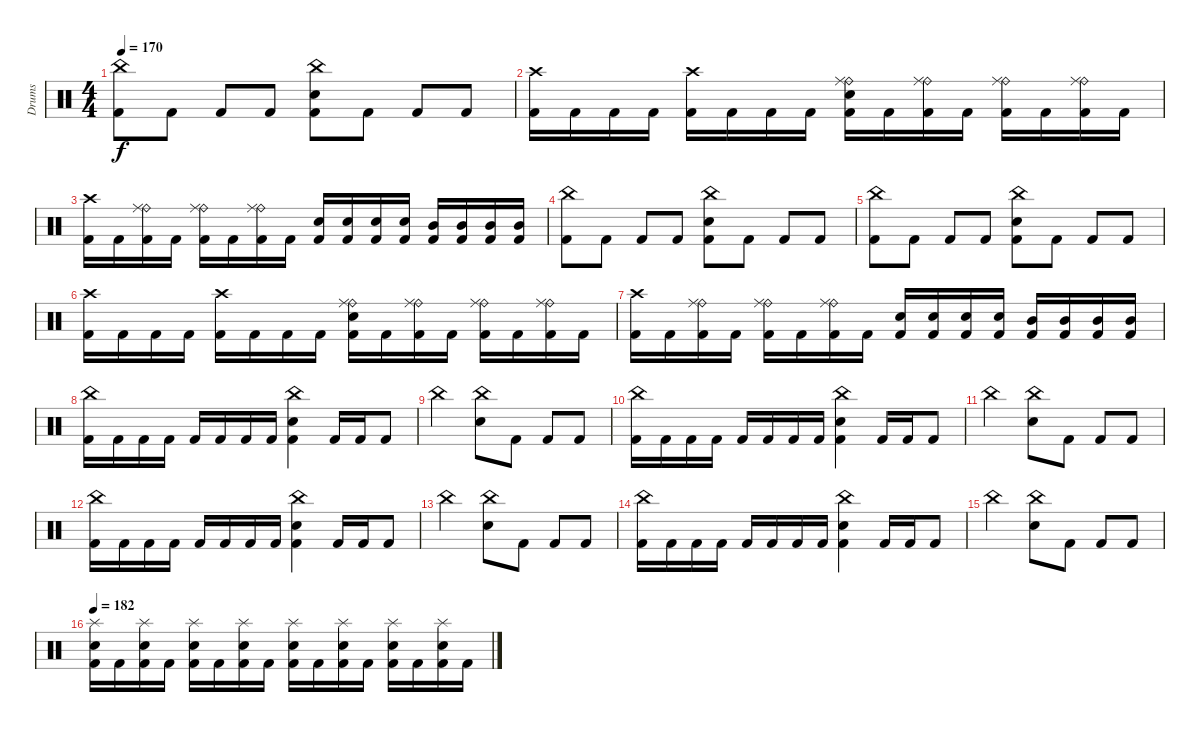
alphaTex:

\track ("Drums" "Drums") {instrument percussion}
\staff {score}
\articulation defaults
\ts (4 4)
\tempo 170
\clef neutral
\ks c
("China (hit)" "Kick (hit) 2").8{dy f} "Kick (hit) 2".8 "Kick (hit) 2".8 "Kick (hit) 2".8 ("China (hit)" "Electric Snare (hit)" "Kick (hit) 2").8 "Kick (hit) 2".8 "Kick (hit) 2".8 "Kick (hit) 2".8 |
("Crash high (hit)" "Kick (hit) 2").16 "Kick (hit) 2".16 "Kick (hit) 2".16 "Kick (hit) 2".16 ("Crash high (hit)" "Kick (hit) 2").16 "Kick (hit) 2".16 "Kick (hit) 2".16 "Kick (hit) 2".16 ("Ride (bell)" "Ride (middle)" "Electric Snare (hit)" "Kick (hit) 2").16 "Kick (hit) 2".16 ("Ride (bell)" "Ride (middle)" "Kick (hit) 2").16 "Kick (hit) 2".16 ("Ride (bell)" "Ride (middle)" "Kick (hit) 2").16 "Kick (hit) 2".16 ("Ride (bell)" "Ride (middle)" "Kick (hit) 2").16 "Kick (hit) 2".16 |
("Crash high (hit)" "Kick (hit) 2").16 "Kick (hit) 2".16 ("Ride (bell)" "Ride (middle)" "Kick (hit) 2").16 "Kick (hit) 2".16 ("Ride (bell)" "Ride (middle)" "Kick (hit) 2").16 "Kick (hit) 2".16 ("Ride (bell)" "Ride (middle)" "Kick (hit) 2").16 "Kick (hit) 2".16 ("Electric Snare (hit)" "Kick (hit) 2").16 ("Electric Snare (hit)" "Kick (hit) 2").16 ("Electric Snare (hit)" "Kick (hit) 2").16 ("Electric Snare (hit)" "Kick (hit) 2").16 ("Mid Tom (hit)" "Kick (hit) 2").16 ("Mid Tom (hit)" "Kick (hit) 2").16 ("Mid Tom (hit)" "Kick (hit) 2").16 ("Mid Tom (hit)" "Kick (hit) 2").16 |
("China (hit)" "Kick (hit) 2").8 "Kick (hit) 2".8 "Kick (hit) 2".8 "Kick (hit) 2".8 ("China (hit)" "Electric Snare (hit)" "Kick (hit) 2").8 "Kick (hit) 2".8 "Kick (hit) 2".8 "Kick (hit) 2".8 |
("China (hit)" "Kick (hit) 2").8 "Kick (hit) 2".8 "Kick (hit) 2".8 "Kick (hit) 2".8 ("China (hit)" "Electric Snare (hit)" "Kick (hit) 2").8 "Kick (hit) 2".8 "Kick (hit) 2".8 "Kick (hit) 2".8 |
("Crash high (hit)" "Kick (hit) 2").16 "Kick (hit) 2".16 "Kick (hit) 2".16 "Kick (hit) 2".16 ("Crash high (hit)" "Kick (hit) 2").16 "Kick (hit) 2".16 "Kick (hit) 2".16 "Kick (hit) 2".16 ("Ride (bell)" "Ride (middle)" "Electric Snare (hit)" "Kick (hit) 2").16 "Kick (hit) 2".16 ("Ride (bell)" "Ride (middle)" "Kick (hit) 2").16 "Kick (hit) 2".16 ("Ride (bell)" "Ride (middle)" "Kick (hit) 2").16 "Kick (hit) 2".16 ("Ride (bell)" "Ride (middle)" "Kick (hit) 2").16 "Kick (hit) 2".16 |
("Crash high (hit)" "Kick (hit) 2").16 "Kick (hit) 2".16 ("Ride (bell)" "Ride (middle)" "Kick (hit) 2").16 "Kick (hit) 2".16 ("Ride (bell)" "Ride (middle)" "Kick (hit) 2").16 "Kick (hit) 2".16 ("Ride (bell)" "Ride (middle)" "Kick (hit) 2").16 "Kick (hit) 2".16 ("Electric Snare (hit)" "Kick (hit) 2").16 ("Electric Snare (hit)" "Kick (hit) 2").16 ("Electric Snare (hit)" "Kick (hit) 2").16 ("Electric Snare (hit)" "Kick (hit) 2").16 ("Mid Tom (hit)" "Kick (hit) 2").16 ("Mid Tom (hit)" "Kick (hit) 2").16 ("Mid Tom (hit)" "Kick (hit) 2").16 ("Mid Tom (hit)" "Kick (hit) 2").16 |
\section ("" "")
("China (hit)" "Kick (hit) 2").16 "Kick (hit) 2".16 "Kick (hit) 2".16 "Kick (hit) 2".16 "Kick (hit) 2".16 "Kick (hit) 2".16 "Kick (hit) 2".16 "Kick (hit) 2".16 ("China (hit)" "Electric Snare (hit)" "Kick (hit) 2").4 "Kick (hit) 2".16 "Kick (hit) 2".16 "Kick (hit) 2".8 |
"China (hit)".2 ("China (hit)" "Electric Snare (hit)").8 "Kick (hit) 2".8 "Kick (hit) 2".8 "Kick (hit) 2".8 |
("China (hit)" "Kick (hit) 2").16 "Kick (hit) 2".16 "Kick (hit) 2".16 "Kick (hit) 2".16 "Kick (hit) 2".16 "Kick (hit) 2".16 "Kick (hit) 2".16 "Kick (hit) 2".16 ("China (hit)" "Electric Snare (hit)" "Kick (hit) 2").4 "Kick (hit) 2".16 "Kick (hit) 2".16 "Kick (hit) 2".8 |
"China (hit)".2 ("China (hit)" "Electric Snare (hit)").8 "Kick (hit) 2".8 "Kick (hit) 2".8 "Kick (hit) 2".8 |
("China (hit)" "Kick (hit) 2").16 "Kick (hit) 2".16 "Kick (hit) 2".16 "Kick (hit) 2".16 "Kick (hit) 2".16 "Kick (hit) 2".16 "Kick (hit) 2".16 "Kick (hit) 2".16 ("China (hit)" "Electric Snare (hit)" "Kick (hit) 2").4 "Kick (hit) 2".16 "Kick (hit) 2".16 "Kick (hit) 2".8 |
"China (hit)".2 ("China (hit)" "Electric Snare (hit)").8 "Kick (hit) 2".8 "Kick (hit) 2".8 "Kick (hit) 2".8 |
("China (hit)" "Kick (hit) 2").16 "Kick (hit) 2".16 "Kick (hit) 2".16 "Kick (hit) 2".16 "Kick (hit) 2".16 "Kick (hit) 2".16 "Kick (hit) 2".16 "Kick (hit) 2".16 ("China (hit)" "Electric Snare (hit)" "Kick (hit) 2").4 "Kick (hit) 2".16 "Kick (hit) 2".16 "Kick (hit) 2".8 |
"China (hit)".2 ("China (hit)" "Electric Snare (hit)").8 "Kick (hit) 2".8 "Kick (hit) 2".8 "Kick (hit) 2".8 |
\section ("" "")
\tempo 182
("Splash (hit)" "Electric Snare (hit)" "Kick (hit) 2").16 "Kick (hit) 2".16 ("Splash (hit)" "Electric Snare (hit)" "Kick (hit) 2").16 "Kick (hit) 2".16 ("Splash (hit)" "Electric Snare (hit)" "Kick (hit) 2").16 "Kick (hit) 2".16 ("Splash (hit)" "Electric Snare (hit)" "Kick (hit) 2").16 "Kick (hit) 2".16 ("Splash (hit)" "Electric Snare (hit)" "Kick (hit) 2").16 "Kick (hit) 2".16 ("Splash (hit)" "Electric Snare (hit)" "Kick (hit) 2").16 "Kick (hit) 2".16 ("Splash (hit)" "Electric Snare (hit)" "Kick (hit) 2").16 "Kick (hit) 2".16 ("Splash (hit)" "Electric Snare (hit)" "Kick (hit) 2").16 "Kick (hit) 2".16
